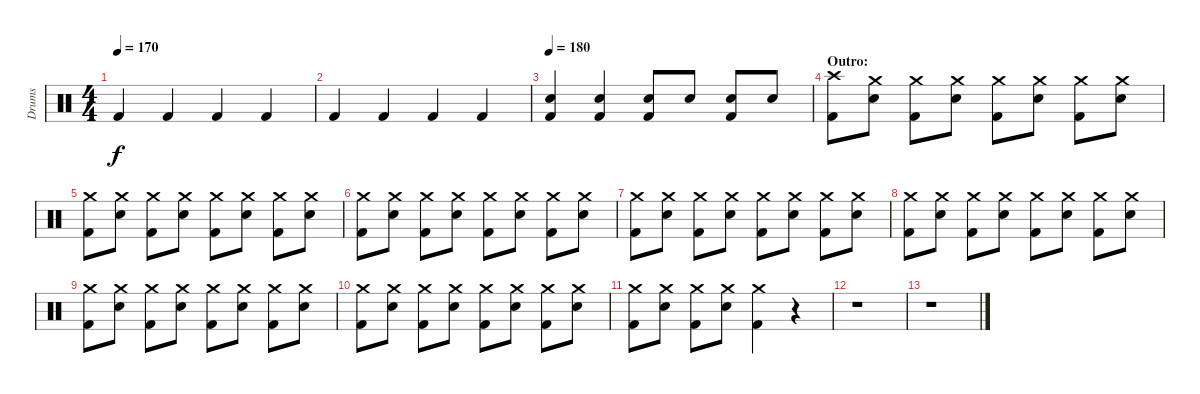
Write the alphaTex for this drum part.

\track ("Drums" "Drums") {instrument percussion}
\staff {score}
\articulation defaults
\ts (4 4)
\tempo 170
\clef neutral
\ks c "Kick (hit) 2".4{dy f} "Kick (hit) 2".4 "Kick (hit) 2".4 "Kick (hit) 2".4
|
"Kick (hit) 2".4 "Kick (hit) 2".4 "Kick (hit) 2".4 "Kick (hit) 2".4 |
\tempo 180
("Electric Snare (hit)" "Kick (hit) 2").4 ("Electric Snare (hit)" "Kick (hit) 2").4 ("Electric Snare (hit)" "Kick (hit) 2").8 "Electric Snare (hit)".8 ("Electric Snare (hit)" "Kick (hit) 2").8 "Electric Snare (hit)".8 |
\section ("" "Outro:")
("Crash high (hit)" "Kick (hit) 2").8 ("Crash medium (hit)" "Electric Snare (hit)").8 ("Crash medium (hit)" "Kick (hit) 2").8 ("Crash medium (hit)" "Electric Snare (hit)").8 ("Crash medium (hit)" "Kick (hit) 2").8 ("Crash medium (hit)" "Electric Snare (hit)").8 ("Crash medium (hit)" "Kick (hit) 2").8 ("Crash medium (hit)" "Electric Snare (hit)").8 |
("Crash medium (hit)" "Kick (hit) 2").8 ("Crash medium (hit)" "Electric Snare (hit)").8 ("Crash medium (hit)" "Kick (hit) 2").8 ("Crash medium (hit)" "Electric Snare (hit)").8 ("Crash medium (hit)" "Kick (hit) 2").8 ("Crash medium (hit)" "Electric Snare (hit)").8 ("Crash medium (hit)" "Kick (hit) 2").8 ("Crash medium (hit)" "Electric Snare (hit)").8 |
("Crash medium (hit)" "Kick (hit) 2").8 ("Crash medium (hit)" "Electric Snare (hit)").8 ("Crash medium (hit)" "Kick (hit) 2").8 ("Crash medium (hit)" "Electric Snare (hit)").8 ("Crash medium (hit)" "Kick (hit) 2").8 ("Crash medium (hit)" "Electric Snare (hit)").8 ("Crash medium (hit)" "Kick (hit) 2").8 ("Crash medium (hit)" "Electric Snare (hit)").8 |
("Crash medium (hit)" "Kick (hit) 2").8 ("Crash medium (hit)" "Electric Snare (hit)").8 ("Crash medium (hit)" "Kick (hit) 2").8 ("Crash medium (hit)" "Electric Snare (hit)").8 ("Crash medium (hit)" "Kick (hit) 2").8 ("Crash medium (hit)" "Electric Snare (hit)").8 ("Crash medium (hit)" "Kick (hit) 2").8 ("Crash medium (hit)" "Electric Snare (hit)").8 |
("Crash medium (hit)" "Kick (hit) 2").8 ("Crash medium (hit)" "Electric Snare (hit)").8 ("Crash medium (hit)" "Kick (hit) 2").8 ("Crash medium (hit)" "Electric Snare (hit)").8 ("Crash medium (hit)" "Kick (hit) 2").8 ("Crash medium (hit)" "Electric Snare (hit)").8 ("Crash medium (hit)" "Kick (hit) 2").8 ("Crash medium (hit)" "Electric Snare (hit)").8 |
("Crash medium (hit)" "Kick (hit) 2").8 ("Crash medium (hit)" "Electric Snare (hit)").8 ("Crash medium (hit)" "Kick (hit) 2").8 ("Crash medium (hit)" "Electric Snare (hit)").8 ("Crash medium (hit)" "Kick (hit) 2").8 ("Crash medium (hit)" "Electric Snare (hit)").8 ("Crash medium (hit)" "Kick (hit) 2").8 ("Crash medium (hit)" "Electric Snare (hit)").8 |
("Crash medium (hit)" "Kick (hit) 2").8 ("Crash medium (hit)" "Electric Snare (hit)").8 ("Crash medium (hit)" "Kick (hit) 2").8 ("Crash medium (hit)" "Electric Snare (hit)").8 ("Crash medium (hit)" "Kick (hit) 2").8 ("Crash medium (hit)" "Electric Snare (hit)").8 ("Crash medium (hit)" "Kick (hit) 2").8 ("Crash medium (hit)" "Electric Snare (hit)").8 |
("Crash medium (hit)" "Kick (hit) 2").8 ("Crash medium (hit)" "Electric Snare (hit)").8 ("Crash medium (hit)" "Kick (hit) 2").8 ("Crash medium (hit)" "Electric Snare (hit)").8 ("Crash medium (hit)" "Kick (hit) 2").4 r.4 |
r.1 |
r.1
